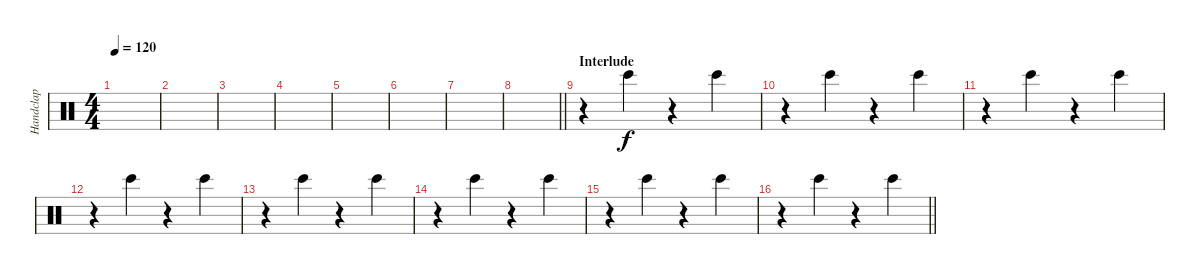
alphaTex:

\track ("Handclap" "Handclap") {instrument percussion}
\staff {score}
\articulation defaults
\ts (4 4)
\tempo 120
\clef neutral
\ks c
|
|
|
|
|
|
|
\barLineRight lightlight
|
\section ("" "Interlude")
r.4 "Bongo High (hit)".4 r.4 "Bongo High (hit)".4 |
r.4 "Bongo High (hit)".4 r.4 "Bongo High (hit)".4 |
r.4 "Bongo High (hit)".4 r.4 "Bongo High (hit)".4 |
r.4 "Bongo High (hit)".4 r.4 "Bongo High (hit)".4 |
r.4 "Bongo High (hit)".4 r.4 "Bongo High (hit)".4 |
r.4 "Bongo High (hit)".4 r.4 "Bongo High (hit)".4 |
r.4 "Bongo High (hit)".4 r.4 "Bongo High (hit)".4 |
\barLineRight lightlight
r.4 "Bongo High (hit)".4 r.4 "Bongo High (hit)".4
